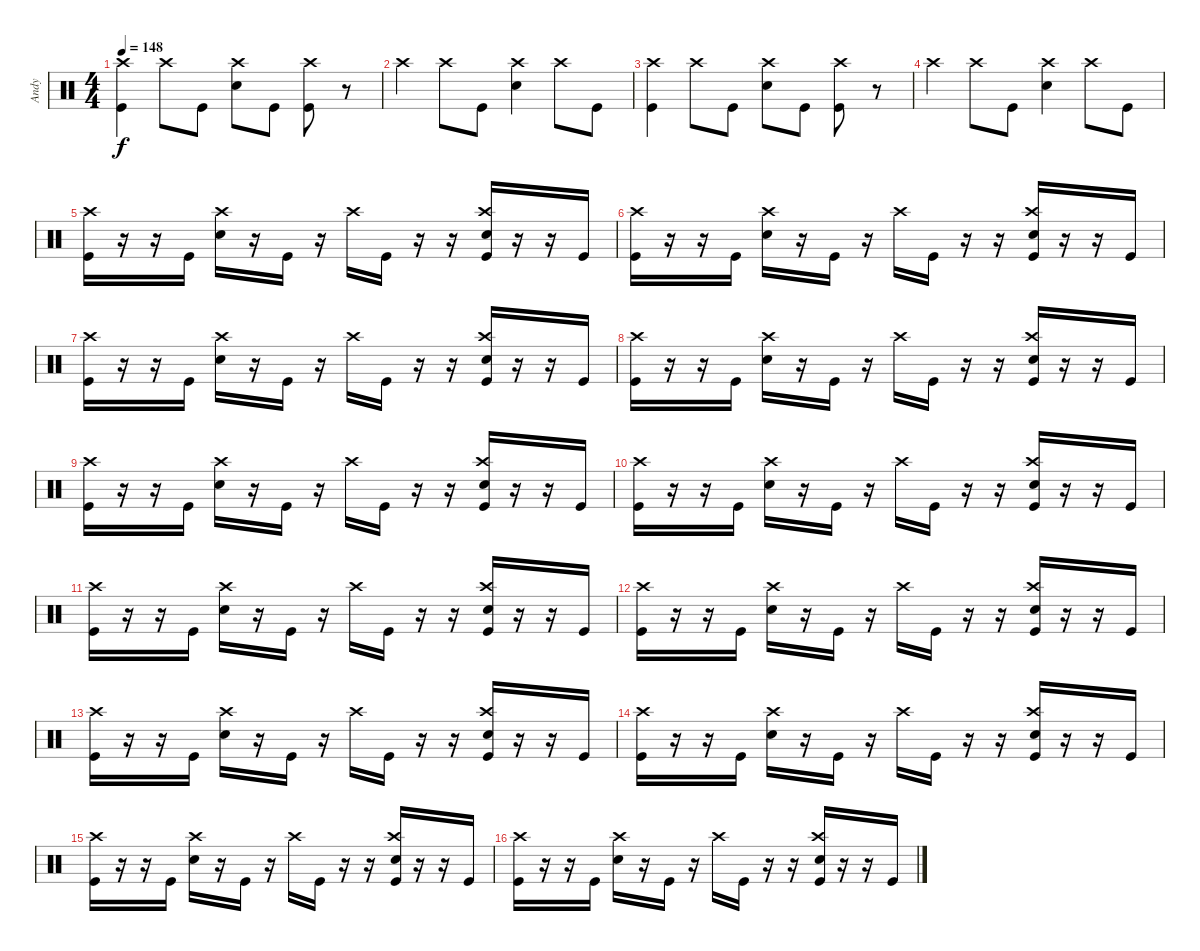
\track ("Andy" "Andy") {instrument percussion}
\staff {score}
\articulation defaults
\ts (4 4)
\tempo 148
\clef neutral
\ks c
("Kick (hit)" "Crash high (hit)").4{dy f} "Crash high (hit)".8 "Kick (hit)".8 ("Snare (hit) 2" "Crash high (hit)").8 "Kick (hit)".8 ("Kick (hit)" "Crash high (hit)").8 r.8 |
"Crash high (hit)".4 "Crash high (hit)".8 "Kick (hit)".8 ("Snare (hit) 2" "Crash high (hit)").4 "Crash high (hit)".8 "Kick (hit)".8 |
("Kick (hit)" "Crash high (hit)").4 "Crash high (hit)".8 "Kick (hit)".8 ("Snare (hit) 2" "Crash high (hit)").8 "Kick (hit)".8 ("Kick (hit)" "Crash high (hit)").8 r.8 |
"Crash high (hit)".4 "Crash high (hit)".8 "Kick (hit)".8 ("Snare (hit) 2" "Crash high (hit)").4 "Crash high (hit)".8 "Kick (hit)".8 |
("Crash high (hit)" "Kick (hit)").16 r.16 r.16 "Kick (hit)".16 ("Crash high (hit)" "Snare (hit) 2").16 r.16 "Kick (hit)".16 r.16 "Crash high (hit)".16 "Kick (hit)".16 r.16 r.16 ("Crash high (hit)" "Kick (hit)" "Snare (hit) 2").16 r.16 r.16 "Kick (hit)".16 |
("Crash high (hit)" "Kick (hit)").16 r.16 r.16 "Kick (hit)".16 ("Crash high (hit)" "Snare (hit) 2").16 r.16 "Kick (hit)".16 r.16 "Crash high (hit)".16 "Kick (hit)".16 r.16 r.16 ("Crash high (hit)" "Kick (hit)" "Snare (hit) 2").16 r.16 r.16 "Kick (hit)".16 |
("Crash high (hit)" "Kick (hit)").16 r.16 r.16 "Kick (hit)".16 ("Crash high (hit)" "Snare (hit) 2").16 r.16 "Kick (hit)".16 r.16 "Crash high (hit)".16 "Kick (hit)".16 r.16 r.16 ("Crash high (hit)" "Kick (hit)" "Snare (hit) 2").16 r.16 r.16 "Kick (hit)".16 |
("Crash high (hit)" "Kick (hit)").16 r.16 r.16 "Kick (hit)".16 ("Crash high (hit)" "Snare (hit) 2").16 r.16 "Kick (hit)".16 r.16 "Crash high (hit)".16 "Kick (hit)".16 r.16 r.16 ("Crash high (hit)" "Kick (hit)" "Snare (hit) 2").16 r.16 r.16 "Kick (hit)".16 |
("Crash high (hit)" "Kick (hit)").16 r.16 r.16 "Kick (hit)".16 ("Crash high (hit)" "Snare (hit) 2").16 r.16 "Kick (hit)".16 r.16 "Crash high (hit)".16 "Kick (hit)".16 r.16 r.16 ("Crash high (hit)" "Kick (hit)" "Snare (hit) 2").16 r.16 r.16 "Kick (hit)".16 |
("Crash high (hit)" "Kick (hit)").16 r.16 r.16 "Kick (hit)".16 ("Crash high (hit)" "Snare (hit) 2").16 r.16 "Kick (hit)".16 r.16 "Crash high (hit)".16 "Kick (hit)".16 r.16 r.16 ("Crash high (hit)" "Kick (hit)" "Snare (hit) 2").16 r.16 r.16 "Kick (hit)".16 |
("Crash high (hit)" "Kick (hit)").16 r.16 r.16 "Kick (hit)".16 ("Crash high (hit)" "Snare (hit) 2").16 r.16 "Kick (hit)".16 r.16 "Crash high (hit)".16 "Kick (hit)".16 r.16 r.16 ("Crash high (hit)" "Kick (hit)" "Snare (hit) 2").16 r.16 r.16 "Kick (hit)".16 |
("Crash high (hit)" "Kick (hit)").16 r.16 r.16 "Kick (hit)".16 ("Crash high (hit)" "Snare (hit) 2").16 r.16 "Kick (hit)".16 r.16 "Crash high (hit)".16 "Kick (hit)".16 r.16 r.16 ("Crash high (hit)" "Kick (hit)" "Snare (hit) 2").16 r.16 r.16 "Kick (hit)".16 |
("Crash high (hit)" "Kick (hit)").16 r.16 r.16 "Kick (hit)".16 ("Crash high (hit)" "Snare (hit) 2").16 r.16 "Kick (hit)".16 r.16 "Crash high (hit)".16 "Kick (hit)".16 r.16 r.16 ("Crash high (hit)" "Kick (hit)" "Snare (hit) 2").16 r.16 r.16 "Kick (hit)".16 |
("Crash high (hit)" "Kick (hit)").16 r.16 r.16 "Kick (hit)".16 ("Crash high (hit)" "Snare (hit) 2").16 r.16 "Kick (hit)".16 r.16 "Crash high (hit)".16 "Kick (hit)".16 r.16 r.16 ("Crash high (hit)" "Kick (hit)" "Snare (hit) 2").16 r.16 r.16 "Kick (hit)".16 |
("Crash high (hit)" "Kick (hit)").16 r.16 r.16 "Kick (hit)".16 ("Crash high (hit)" "Snare (hit) 2").16 r.16 "Kick (hit)".16 r.16 "Crash high (hit)".16 "Kick (hit)".16 r.16 r.16 ("Crash high (hit)" "Kick (hit)" "Snare (hit) 2").16 r.16 r.16 "Kick (hit)".16 |
("Crash high (hit)" "Kick (hit)").16 r.16 r.16 "Kick (hit)".16 ("Crash high (hit)" "Snare (hit) 2").16 r.16 "Kick (hit)".16 r.16 "Crash high (hit)".16 "Kick (hit)".16 r.16 r.16 ("Crash high (hit)" "Kick (hit)" "Snare (hit) 2").16 r.16 r.16 "Kick (hit)".16
